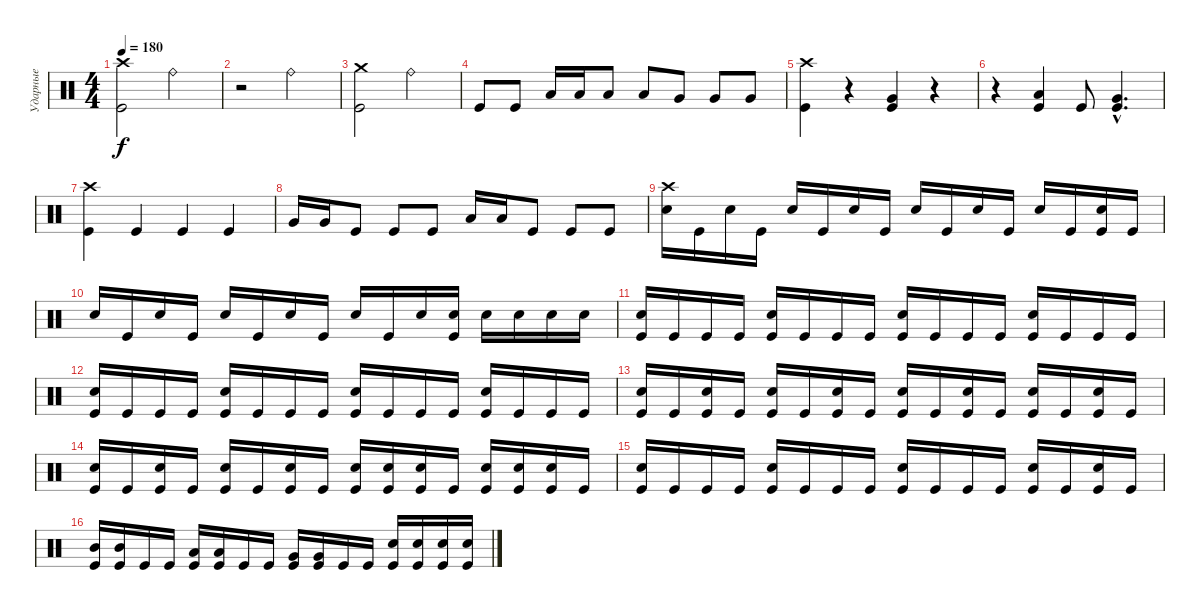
\track ("Ударные" "Ударные") {instrument percussion}
\staff {score}
\articulation defaults
\ts (4 4)
\tempo 180
\clef neutral
\ks c
("Crash high (hit)" "Kick (hit)").2{dy f} "Ride (bell)".2 |
r.2 "Ride (bell)".2 |
("Crash medium (hit)" "Kick (hit)").2 "Ride (bell)".2 |
"Kick (hit)".8 "Kick (hit)".8 "Low Tom (hit)".16 "Low Tom (hit)".16 "Low Tom (hit)".8 "Low Tom (hit)".8 "Very Low Tom (hit)".8 "Very Low Tom (hit)".8 "Very Low Tom (hit)".8 |
("Crash high (hit)" "Kick (hit)").4 r.4 ("Very Low Tom (hit)" "Kick (hit)").4 r.4 |
r.4 ("Low Tom (hit)" "Kick (hit)").4 "Kick (hit)".8 ("Very Low Tom (hit)"{hac} "Kick (hit)"{hac}).4{d} |
("Crash high (hit)" "Kick (hit)").4 "Kick (hit)".4 "Kick (hit)".4 "Kick (hit)".4 |
"Very Low Tom (hit)".16 "Very Low Tom (hit)".16 "Kick (hit)".8 "Kick (hit)".8 "Kick (hit)".8 "Low Tom (hit)".16 "Low Tom (hit)".16 "Kick (hit)".8 "Kick (hit)".8 "Kick (hit)".8 |
("Crash high (hit)" "Electric Snare (hit)").16 "Kick (hit)".16 "Electric Snare (hit)".16 "Kick (hit)".16 "Electric Snare (hit)".16 "Kick (hit)".16 "Electric Snare (hit)".16 "Kick (hit)".16 "Electric Snare (hit)".16 "Kick (hit)".16 "Electric Snare (hit)".16 "Kick (hit)".16 "Electric Snare (hit)".16 "Kick (hit)".16 ("Electric Snare (hit)" "Kick (hit)").16 "Kick (hit)".16 |
"Electric Snare (hit)".16 "Kick (hit)".16 "Electric Snare (hit)".16 "Kick (hit)".16 "Electric Snare (hit)".16 "Kick (hit)".16 "Electric Snare (hit)".16 "Kick (hit)".16 "Electric Snare (hit)".16 "Kick (hit)".16 "Electric Snare (hit)".16 ("Electric Snare (hit)" "Kick (hit)").16 "Electric Snare (hit)".16 "Electric Snare (hit)".16 "Electric Snare (hit)".16 "Electric Snare (hit)".16 |
("Electric Snare (hit)" "Kick (hit)").16 "Kick (hit)".16 "Kick (hit)".16 "Kick (hit)".16 ("Electric Snare (hit)" "Kick (hit)").16 "Kick (hit)".16 "Kick (hit)".16 "Kick (hit)".16 ("Electric Snare (hit)" "Kick (hit)").16 "Kick (hit)".16 "Kick (hit)".16 "Kick (hit)".16 ("Electric Snare (hit)" "Kick (hit)").16 "Kick (hit)".16 "Kick (hit)".16 "Kick (hit)".16 |
("Electric Snare (hit)" "Kick (hit)").16 "Kick (hit)".16 "Kick (hit)".16 "Kick (hit)".16 ("Electric Snare (hit)" "Kick (hit)").16 "Kick (hit)".16 "Kick (hit)".16 "Kick (hit)".16 ("Electric Snare (hit)" "Kick (hit)").16 "Kick (hit)".16 "Kick (hit)".16 "Kick (hit)".16 ("Electric Snare (hit)" "Kick (hit)").16 "Kick (hit)".16 "Kick (hit)".16 "Kick (hit)".16 |
("Electric Snare (hit)" "Kick (hit)").16 "Kick (hit)".16 ("Electric Snare (hit)" "Kick (hit)").16 "Kick (hit)".16 ("Electric Snare (hit)" "Kick (hit)").16 "Kick (hit)".16 ("Electric Snare (hit)" "Kick (hit)").16 "Kick (hit)".16 ("Electric Snare (hit)" "Kick (hit)").16 "Kick (hit)".16 ("Electric Snare (hit)" "Kick (hit)").16 "Kick (hit)".16 ("Electric Snare (hit)" "Kick (hit)").16 "Kick (hit)".16 ("Electric Snare (hit)" "Kick (hit)").16 "Kick (hit)".16 |
("Electric Snare (hit)" "Kick (hit)").16 "Kick (hit)".16 ("Electric Snare (hit)" "Kick (hit)").16 "Kick (hit)".16 ("Electric Snare (hit)" "Kick (hit)").16 "Kick (hit)".16 ("Electric Snare (hit)" "Kick (hit)").16 "Kick (hit)".16 ("Electric Snare (hit)" "Kick (hit)").16 ("Electric Snare (hit)" "Kick (hit)").16 ("Electric Snare (hit)" "Kick (hit)").16 "Kick (hit)".16 ("Electric Snare (hit)" "Kick (hit)").16 ("Electric Snare (hit)" "Kick (hit)").16 ("Electric Snare (hit)" "Kick (hit)").16 "Kick (hit)".16 |
("Electric Snare (hit)" "Kick (hit)").16 "Kick (hit)".16 "Kick (hit)".16 "Kick (hit)".16 ("Electric Snare (hit)" "Kick (hit)").16 "Kick (hit)".16 "Kick (hit)".16 "Kick (hit)".16 ("Electric Snare (hit)" "Kick (hit)").16 "Kick (hit)".16 "Kick (hit)".16 "Kick (hit)".16 ("Electric Snare (hit)" "Kick (hit)").16 "Kick (hit)".16 ("Electric Snare (hit)" "Kick (hit)").16 "Kick (hit)".16 |
("Mid Tom (hit)" "Kick (hit)").16 ("Mid Tom (hit)" "Kick (hit)").16 "Kick (hit)".16 "Kick (hit)".16 ("Low Tom (hit)" "Kick (hit)").16 ("Low Tom (hit)" "Kick (hit)").16 "Kick (hit)".16 "Kick (hit)".16 ("Very Low Tom (hit)" "Kick (hit)").16 ("Very Low Tom (hit)" "Kick (hit)").16 "Kick (hit)".16 "Kick (hit)".16 ("Electric Snare (hit)" "Kick (hit)").16 ("Electric Snare (hit)" "Kick (hit)").16 ("Electric Snare (hit)" "Kick (hit)").16 ("Electric Snare (hit)" "Kick (hit)").16
